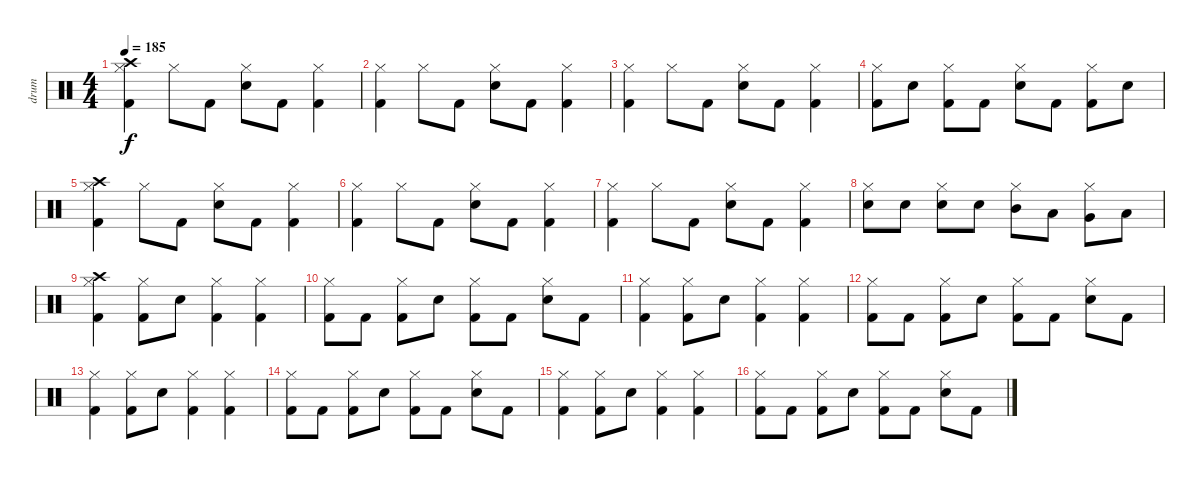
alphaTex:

\track ("drum" "drum") {instrument percussion}
\staff {score}
\articulation defaults
\ts (4 4)
\tempo 185
\clef neutral
\ks c
("Hi-Hat (closed)" "Crash high (hit)" "Kick (hit) 2").4{dy f} "Hi-Hat (closed)".8 "Kick (hit) 2".8 ("Hi-Hat (closed)" "Electric Snare (hit)").8 "Kick (hit) 2".8 ("Hi-Hat (closed)" "Kick (hit) 2").4 |
("Hi-Hat (closed)" "Kick (hit) 2").4 "Hi-Hat (closed)".8 "Kick (hit) 2".8 ("Hi-Hat (closed)" "Electric Snare (hit)").8 "Kick (hit) 2".8 ("Hi-Hat (closed)" "Kick (hit) 2").4 |
("Hi-Hat (closed)" "Kick (hit) 2").4 "Hi-Hat (closed)".8 "Kick (hit) 2".8 ("Hi-Hat (closed)" "Electric Snare (hit)").8 "Kick (hit) 2".8 ("Hi-Hat (closed)" "Kick (hit) 2").4 |
("Hi-Hat (closed)" "Kick (hit) 2").8 "Electric Snare (hit)".8 ("Hi-Hat (closed)" "Kick (hit) 2").8 "Kick (hit) 2".8 ("Hi-Hat (closed)" "Electric Snare (hit)").8 "Kick (hit) 2".8 ("Hi-Hat (closed)" "Kick (hit) 2").8 "Electric Snare (hit)".8 |
("Hi-Hat (closed)" "Crash high (hit)" "Kick (hit) 2").4 "Hi-Hat (closed)".8 "Kick (hit) 2".8 ("Hi-Hat (closed)" "Electric Snare (hit)").8 "Kick (hit) 2".8 ("Hi-Hat (closed)" "Kick (hit) 2").4 |
("Hi-Hat (closed)" "Kick (hit) 2").4 "Hi-Hat (closed)".8 "Kick (hit) 2".8 ("Hi-Hat (closed)" "Electric Snare (hit)").8 "Kick (hit) 2".8 ("Hi-Hat (closed)" "Kick (hit) 2").4 |
("Hi-Hat (closed)" "Kick (hit) 2").4 "Hi-Hat (closed)".8 "Kick (hit) 2".8 ("Hi-Hat (closed)" "Electric Snare (hit)").8 "Kick (hit) 2".8 ("Hi-Hat (closed)" "Kick (hit) 2").4 |
("Hi-Hat (closed)" "Electric Snare (hit)").8 "Electric Snare (hit)".8 ("Hi-Hat (closed)" "Electric Snare (hit)").8 "Electric Snare (hit)".8 ("Hi-Hat (closed)" "Mid Tom (hit)").8 "Low Tom (hit)".8 ("Hi-Hat (closed)" "Very Low Tom (hit)").8 "Low Floor Tom (hit)".8 |
("Hi-Hat (closed)" "Crash high (hit)" "Kick (hit) 2").4 ("Hi-Hat (closed)" "Kick (hit) 2").8 "Electric Snare (hit)".8 ("Hi-Hat (closed)" "Kick (hit) 2").4 ("Hi-Hat (closed)" "Kick (hit) 2").4 |
("Hi-Hat (closed)" "Kick (hit) 2").8 "Kick (hit) 2".8 ("Hi-Hat (closed)" "Kick (hit) 2").8 "Electric Snare (hit)".8 ("Hi-Hat (closed)" "Kick (hit) 2").8 "Kick (hit) 2".8 ("Hi-Hat (closed)" "Electric Snare (hit)").8 "Kick (hit) 2".8 |
("Hi-Hat (closed)" "Kick (hit) 2").4 ("Hi-Hat (closed)" "Kick (hit) 2").8 "Electric Snare (hit)".8 ("Hi-Hat (closed)" "Kick (hit) 2").4 ("Hi-Hat (closed)" "Kick (hit) 2").4 |
("Hi-Hat (closed)" "Kick (hit) 2").8 "Kick (hit) 2".8 ("Hi-Hat (closed)" "Kick (hit) 2").8 "Electric Snare (hit)".8 ("Hi-Hat (closed)" "Kick (hit) 2").8 "Kick (hit) 2".8 ("Hi-Hat (closed)" "Electric Snare (hit)").8 "Kick (hit) 2".8 |
("Hi-Hat (closed)" "Kick (hit) 2").4 ("Hi-Hat (closed)" "Kick (hit) 2").8 "Electric Snare (hit)".8 ("Hi-Hat (closed)" "Kick (hit) 2").4 ("Hi-Hat (closed)" "Kick (hit) 2").4 |
("Hi-Hat (closed)" "Kick (hit) 2").8 "Kick (hit) 2".8 ("Hi-Hat (closed)" "Kick (hit) 2").8 "Electric Snare (hit)".8 ("Hi-Hat (closed)" "Kick (hit) 2").8 "Kick (hit) 2".8 ("Hi-Hat (closed)" "Electric Snare (hit)").8 "Kick (hit) 2".8 |
("Hi-Hat (closed)" "Kick (hit) 2").4 ("Hi-Hat (closed)" "Kick (hit) 2").8 "Electric Snare (hit)".8 ("Hi-Hat (closed)" "Kick (hit) 2").4 ("Hi-Hat (closed)" "Kick (hit) 2").4 |
("Hi-Hat (closed)" "Kick (hit) 2").8 "Kick (hit) 2".8 ("Hi-Hat (closed)" "Kick (hit) 2").8 "Electric Snare (hit)".8 ("Hi-Hat (closed)" "Kick (hit) 2").8 "Kick (hit) 2".8 ("Hi-Hat (closed)" "Electric Snare (hit)").8 "Kick (hit) 2".8
